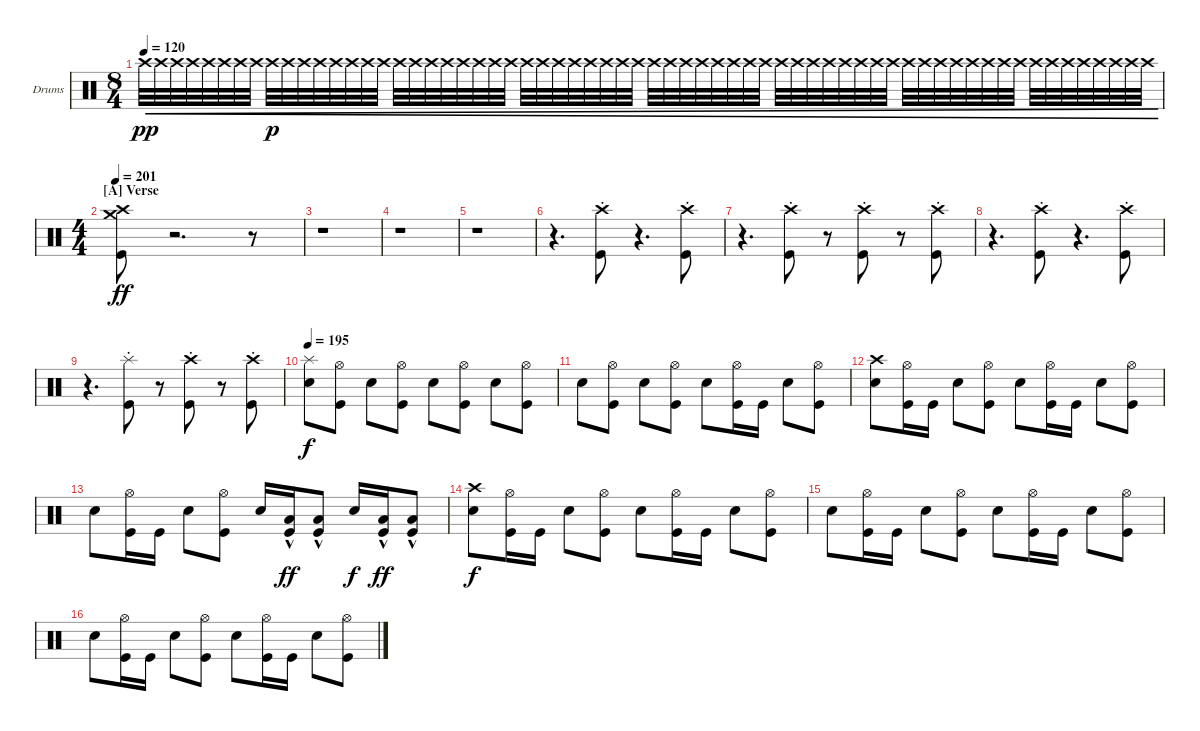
\bracketExtendMode groupsimilarinstruments
\firstSystemTrackNameOrientation horizontal
\otherSystemsTrackNameOrientation horizontal
\track ("Drumkit" "Drums") {instrument percussion}
\staff {score}
\articulation defaults
\ts (8 4)
\tempo 120
\clef neutral
\ks c "Crash high (hit)".32{cre dy pp} "Crash high (hit)".32{cre} "Crash high (hit)".32{cre} "Crash high (hit)".32{cre} "Crash high (hit)".32{cre} "Crash high (hit)".32{cre} "Crash high (hit)".32{cre} "Crash high (hit)".32{cre} "Crash high (hit)".32{cre dy p} "Crash high (hit)".32{cre} "Crash high (hit)".32{cre} "Crash high (hit)".32{cre} "Crash high (hit)".32{cre} "Crash high (hit)".32{cre} "Crash high (hit)".32{cre} "Crash high (hit)".32{cre} "Crash high (hit)".32{cre} "Crash high (hit)".32{cre} "Crash high (hit)".32{cre} "Crash high (hit)".32{cre} "Crash high (hit)".32{cre} "Crash high (hit)".32{cre} "Crash high (hit)".32{cre} "Crash high (hit)".32{cre} "Crash high (hit)".32{cre} "Crash high (hit)".32{cre} "Crash high (hit)".32{cre} "Crash high (hit)".32{cre} "Crash high (hit)".32{cre} "Crash high (hit)".32{cre} "Crash high (hit)".32{cre} "Crash high (hit)".32{cre} "Crash high (hit)".32{cre} "Crash high (hit)".32{cre} "Crash high (hit)".32{cre} "Crash high (hit)".32{cre} "Crash high (hit)".32{cre} "Crash high (hit)".32{cre} "Crash high (hit)".32{cre} "Crash high (hit)".32{cre} "Crash high (hit)".32{cre} "Crash high (hit)".32{cre} "Crash high (hit)".32{cre} "Crash high (hit)".32{cre} "Crash high (hit)".32{cre} "Crash high (hit)".32{cre} "Crash high (hit)".32{cre} "Crash high (hit)".32{cre} "Crash high (hit)".32{cre} "Crash high (hit)".32{cre} "Crash high (hit)".32{cre} "Crash high (hit)".32{cre} "Crash high (hit)".32{cre} "Crash high (hit)".32{cre} "Crash high (hit)".32{cre} "Crash high (hit)".32{cre} "Crash high (hit)".32{cre} "Crash high (hit)".32{cre} "Crash high (hit)".32{cre} "Crash high (hit)".32{cre} "Crash high (hit)".32{cre} "Crash high (hit)".32{cre} "Crash high (hit)".32{cre} "Crash high (hit)".32{cre}
|
\ts (4 4)
\section ("A" "Verse")
\tempo 201
("Kick (hit)" "Crash medium (hit)" "Crash high (hit)").8{dy ff} r.2{d} r.8 |
r.1 |
r.1 |
r.1 |
r.4{d} ("Kick (hit)"{st} "Crash high (hit)"{st}).8 r.4{d} ("Kick (hit)"{st} "Crash high (hit)"{st}).8 |
r.4{d} ("Kick (hit)"{st} "Crash high (hit)"{st}).8 r.8 ("Kick (hit)"{st} "Crash high (hit)"{st}).8 r.8 ("Kick (hit)"{st} "Crash high (hit)"{st}).8 |
r.4{d} ("Kick (hit)"{st} "Crash high (hit)"{st}).8 r.4{d} ("Kick (hit)"{st} "Crash high (hit)"{st}).8 |
r.4{d} ("Kick (hit)"{st} "Splash (hit)"{st}).8 r.8 ("Kick (hit)"{st} "Crash high (hit)"{st}).8 r.8 ("Kick (hit)"{st} "Crash high (hit)"{st}).8 |
\tempo 195
\scale
1.22699 ("Snare (hit) 2" "Splash (hit)").8{dy f} ("Kick (hit)" "Hi-Hat (open)").8 "Snare (hit) 2".8 ("Kick (hit)" "Hi-Hat (open)").8 "Snare (hit) 2".8 ("Kick (hit)" "Hi-Hat (open)").8 "Snare (hit) 2".8 ("Kick (hit)" "Hi-Hat (open)").8 |
\scale
0.943253 "Snare (hit) 2".8 ("Kick (hit)" "Hi-Hat (open)").8 "Snare (hit) 2".8 ("Kick (hit)" "Hi-Hat (open)").8 "Snare (hit) 2".8 ("Kick (hit)" "Hi-Hat (open)").16 "Kick (hit)".16 "Snare (hit) 2".8 ("Kick (hit)" "Hi-Hat (open)").8 |
\scale
0.943253 ("Snare (hit) 2" "Crash high (hit)").8 ("Kick (hit)" "Hi-Hat (open)").16 "Kick (hit)".16 "Snare (hit) 2".8 ("Kick (hit)" "Hi-Hat (open)").8 "Snare (hit) 2".8 ("Kick (hit)" "Hi-Hat (open)").16 "Kick (hit)".16 "Snare (hit) 2".8 ("Kick (hit)" "Hi-Hat (open)").8 |
\scale
0.943253 "Snare (hit) 2".8 ("Kick (hit)" "Hi-Hat (open)").16 "Kick (hit)".16 "Snare (hit) 2".8 ("Kick (hit)" "Hi-Hat (open)").8 "Snare (hit) 2".16 ("Low Tom (hit)"{hac} "Kick (hit)").16{dy ff} ("Low Tom (hit)"{hac} "Kick (hit)").8 "Snare (hit) 2".16{dy f} ("Low Tom (hit)"{hac} "Kick (hit)").16{dy ff} ("Low Tom (hit)"{hac} "Kick (hit)").8 |
\scale
0.943253 ("Snare (hit) 2" "Crash high (hit)").8{dy f} ("Kick (hit)" "Hi-Hat (open)").16 "Kick (hit)".16 "Snare (hit) 2".8 ("Kick (hit)" "Hi-Hat (open)").8 "Snare (hit) 2".8 ("Kick (hit)" "Hi-Hat (open)").16 "Kick (hit)".16 "Snare (hit) 2".8 ("Kick (hit)" "Hi-Hat (open)").8 |
\scale
1.13241 "Snare (hit) 2".8 ("Kick (hit)" "Hi-Hat (open)").16 "Kick (hit)".16 "Snare (hit) 2".8 ("Kick (hit)" "Hi-Hat (open)").8 "Snare (hit) 2".8 ("Kick (hit)" "Hi-Hat (open)").16 "Kick (hit)".16 "Snare (hit) 2".8 ("Kick (hit)" "Hi-Hat (open)").8 |
\scale
0.973518 "Snare (hit) 2".8 ("Kick (hit)" "Hi-Hat (open)").16 "Kick (hit)".16 "Snare (hit) 2".8 ("Kick (hit)" "Hi-Hat (open)").8 "Snare (hit) 2".8 ("Kick (hit)" "Hi-Hat (open)").16 "Kick (hit)".16 "Snare (hit) 2".8 ("Kick (hit)" "Hi-Hat (open)").8
